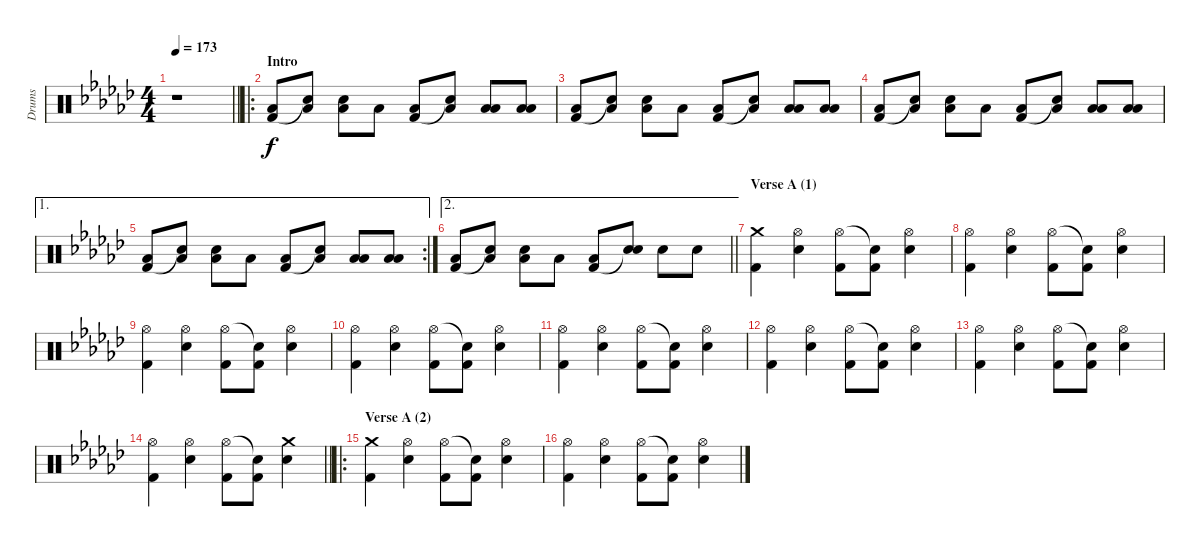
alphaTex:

\track ("Drums" "Drums") {instrument percussion}
\staff {score}
\articulation defaults
\ts (4 4)
\tempo 173
\clef neutral
\barLineRight lightlight
\ks ebminor
r.1{dy f} |
\ro
\section ("" "Intro")
("Low Floor Tom (hit)" "Kick (hit) 2").8 ("Low Floor Tom (hit)" "Snare (hit)"{t}).8 ("Electric Snare (hit)" "Low Floor Tom (hit)").8 "Low Floor Tom (hit)".8 ("Low Floor Tom (hit)" "Kick (hit) 2").8 ("Low Floor Tom (hit)" "Snare (hit)"{t}).8 ("Low Tom (hit)" "Low Floor Tom (hit)").8 ("Low Tom (hit)" "Low Floor Tom (hit)").8 |
("Low Floor Tom (hit)" "Kick (hit) 2").8 ("Low Floor Tom (hit)" "Snare (hit)"{t}).8 ("Electric Snare (hit)" "Low Floor Tom (hit)").8 "Low Floor Tom (hit)".8 ("Low Floor Tom (hit)" "Kick (hit) 2").8 ("Low Floor Tom (hit)" "Snare (hit)"{t}).8 ("Low Tom (hit)" "Low Floor Tom (hit)").8 ("Low Tom (hit)" "Low Floor Tom (hit)").8 |
("Low Floor Tom (hit)" "Kick (hit) 2").8 ("Low Floor Tom (hit)" "Snare (hit)"{t}).8 ("Electric Snare (hit)" "Low Floor Tom (hit)").8 "Low Floor Tom (hit)".8 ("Low Floor Tom (hit)" "Kick (hit) 2").8 ("Low Floor Tom (hit)" "Snare (hit)"{t}).8 ("Low Tom (hit)" "Low Floor Tom (hit)").8 ("Low Tom (hit)" "Low Floor Tom (hit)").8 |
\ae 1
\rc 2
("Low Floor Tom (hit)" "Kick (hit) 2").8 ("Low Floor Tom (hit)" "Snare (hit)"{t}).8 ("Electric Snare (hit)" "Low Floor Tom (hit)").8 "Low Floor Tom (hit)".8 ("Low Floor Tom (hit)" "Kick (hit) 2").8 ("Low Floor Tom (hit)" "Snare (hit)"{t}).8 ("Low Tom (hit)" "Low Floor Tom (hit)").8 ("Low Tom (hit)" "Low Floor Tom (hit)").8 |
\ae 2
\barLineRight lightlight
("Low Floor Tom (hit)" "Kick (hit) 2").8 ("Low Floor Tom (hit)" "Snare (hit)"{t}).8 ("Electric Snare (hit)" "Low Floor Tom (hit)").8 "Low Floor Tom (hit)".8 ("Low Floor Tom (hit)" "Kick (hit) 2").8 ("Electric Snare (hit)" "Snare (hit)"{t}).8 "Electric Snare (hit)".8 "Electric Snare (hit)".8 |
\section ("" "Verse A (1)")
("Crash medium (hit)" "Kick (hit) 2").4 ("Hi-Hat (open)" "Electric Snare (hit)").4 ("Hi-Hat (open)" "Kick (hit) 2").8 ("Snare (hit)"{t} "Kick (hit) 2").8 ("Hi-Hat (open)" "Electric Snare (hit)").4 |
("Hi-Hat (open)" "Kick (hit) 2").4 ("Hi-Hat (open)" "Electric Snare (hit)").4 ("Hi-Hat (open)" "Kick (hit) 2").8 ("Snare (hit)"{t} "Kick (hit) 2").8 ("Hi-Hat (open)" "Electric Snare (hit)").4 |
("Hi-Hat (open)" "Kick (hit) 2").4 ("Hi-Hat (open)" "Electric Snare (hit)").4 ("Hi-Hat (open)" "Kick (hit) 2").8 ("Snare (hit)"{t} "Kick (hit) 2").8 ("Hi-Hat (open)" "Electric Snare (hit)").4 |
("Hi-Hat (open)" "Kick (hit) 2").4 ("Hi-Hat (open)" "Electric Snare (hit)").4 ("Hi-Hat (open)" "Kick (hit) 2").8 ("Snare (hit)"{t} "Kick (hit) 2").8 ("Hi-Hat (open)" "Electric Snare (hit)").4 |
("Hi-Hat (open)" "Kick (hit) 2").4 ("Hi-Hat (open)" "Electric Snare (hit)").4 ("Hi-Hat (open)" "Kick (hit) 2").8 ("Snare (hit)"{t} "Kick (hit) 2").8 ("Hi-Hat (open)" "Electric Snare (hit)").4 |
("Hi-Hat (open)" "Kick (hit) 2").4 ("Hi-Hat (open)" "Electric Snare (hit)").4 ("Hi-Hat (open)" "Kick (hit) 2").8 ("Snare (hit)"{t} "Kick (hit) 2").8 ("Hi-Hat (open)" "Electric Snare (hit)").4 |
("Hi-Hat (open)" "Kick (hit) 2").4 ("Hi-Hat (open)" "Electric Snare (hit)").4 ("Hi-Hat (open)" "Kick (hit) 2").8 ("Snare (hit)"{t} "Kick (hit) 2").8 ("Hi-Hat (open)" "Electric Snare (hit)").4 |
\barLineRight lightlight
("Hi-Hat (open)" "Kick (hit) 2").4 ("Hi-Hat (open)" "Electric Snare (hit)").4 ("Hi-Hat (open)" "Kick (hit) 2").8 ("Snare (hit)"{t} "Kick (hit) 2").8 ("Crash medium (hit)" "Electric Snare (hit)").4 |
\ro
\section ("" "Verse A (2)")
("Crash medium (hit)" "Kick (hit) 2").4 ("Hi-Hat (open)" "Electric Snare (hit)").4 ("Hi-Hat (open)" "Kick (hit) 2").8 ("Snare (hit)"{t} "Kick (hit) 2").8 ("Hi-Hat (open)" "Electric Snare (hit)").4 |
("Hi-Hat (open)" "Kick (hit) 2").4 ("Hi-Hat (open)" "Electric Snare (hit)").4 ("Hi-Hat (open)" "Kick (hit) 2").8 ("Snare (hit)"{t} "Kick (hit) 2").8 ("Hi-Hat (open)" "Electric Snare (hit)").4
